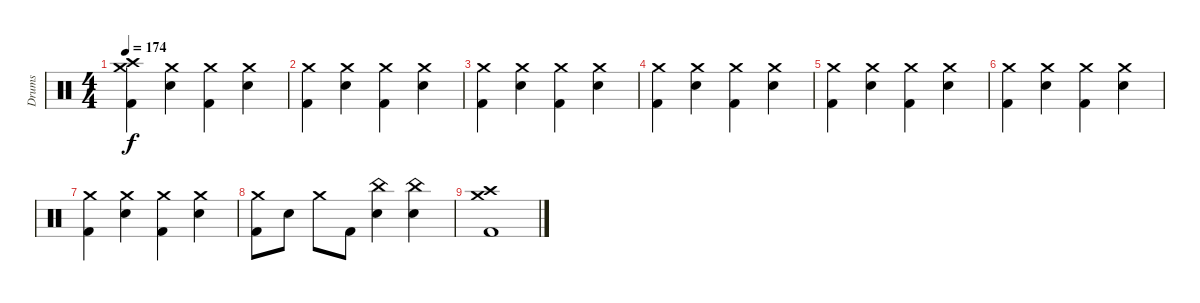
\track ("Drums" "Drums") {instrument percussion}
\staff {score}
\articulation defaults
\ts (4 4)
\tempo 174
\clef neutral
\ks c
("Crash medium (hit)" "Crash high (hit)" "Kick (hit) 2").4{dy f} ("Crash medium (hit)" "Electric Snare (hit)").4 ("Crash medium (hit)" "Kick (hit) 2").4 ("Crash medium (hit)" "Electric Snare (hit)").4 |
("Crash medium (hit)" "Kick (hit) 2").4 ("Crash medium (hit)" "Electric Snare (hit)").4 ("Crash medium (hit)" "Kick (hit) 2").4 ("Crash medium (hit)" "Electric Snare (hit)").4 |
("Crash medium (hit)" "Kick (hit) 2").4 ("Crash medium (hit)" "Electric Snare (hit)").4 ("Crash medium (hit)" "Kick (hit) 2").4 ("Crash medium (hit)" "Electric Snare (hit)").4 |
("Crash medium (hit)" "Kick (hit) 2").4 ("Crash medium (hit)" "Electric Snare (hit)").4 ("Crash medium (hit)" "Kick (hit) 2").4 ("Crash medium (hit)" "Electric Snare (hit)").4 |
("Crash medium (hit)" "Kick (hit) 2").4 ("Crash medium (hit)" "Electric Snare (hit)").4 ("Crash medium (hit)" "Kick (hit) 2").4 ("Crash medium (hit)" "Electric Snare (hit)").4 |
("Crash medium (hit)" "Kick (hit) 2").4 ("Crash medium (hit)" "Electric Snare (hit)").4 ("Crash medium (hit)" "Kick (hit) 2").4 ("Crash medium (hit)" "Electric Snare (hit)").4 |
("Crash medium (hit)" "Kick (hit) 2").4 ("Crash medium (hit)" "Electric Snare (hit)").4 ("Crash medium (hit)" "Kick (hit) 2").4 ("Crash medium (hit)" "Electric Snare (hit)").4 |
("Crash medium (hit)" "Kick (hit) 2").8 "Electric Snare (hit)".8 "Crash medium (hit)".8 "Kick (hit) 2".8 ("China (hit)" "Electric Snare (hit)").4 ("China (hit)" "Electric Snare (hit)").4 |
("Crash medium (hit)" "Crash high (hit)" "Kick (hit) 2").1
